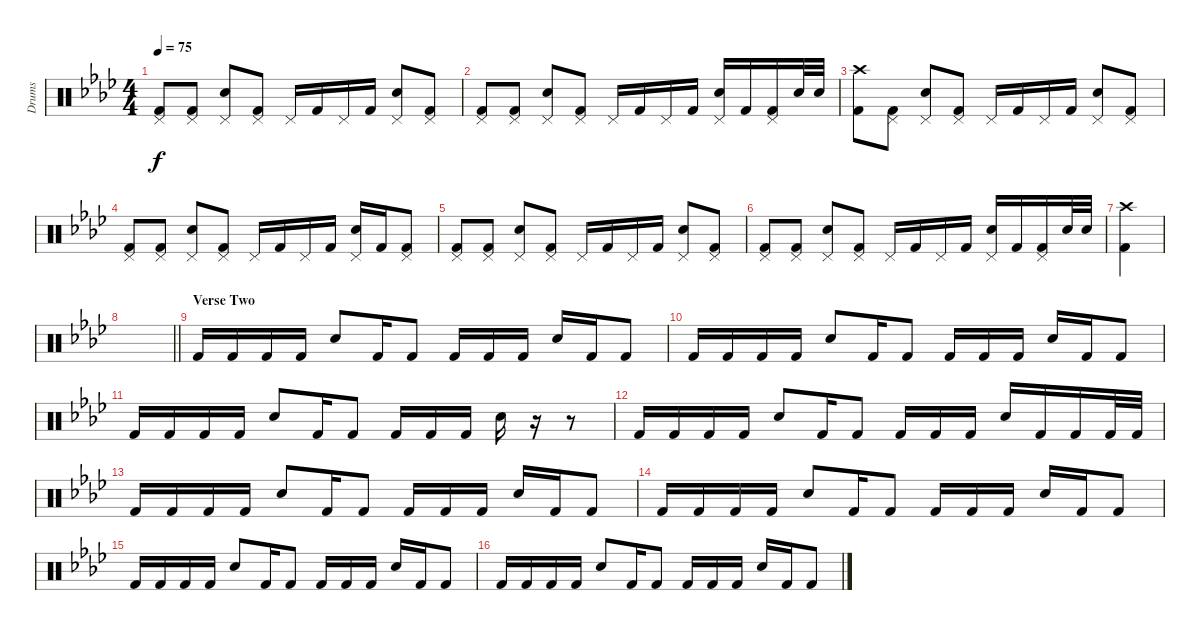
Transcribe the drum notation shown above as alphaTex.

\track ("Drums" "Drums") {instrument percussion}
\staff {score}
\articulation defaults
\ts (4 4)
\tempo 75
\clef neutral
\ks ab
("Pedal Hi-Hat (hit)" "Kick (hit) 2").8{dy f} ("Pedal Hi-Hat (hit)" "Kick (hit) 2").8 ("Pedal Hi-Hat (hit)" "Snare (hit) 2").8 ("Pedal Hi-Hat (hit)" "Kick (hit) 2").8 "Pedal Hi-Hat (hit)".16 "Kick (hit) 2".16 "Pedal Hi-Hat (hit)".16 "Kick (hit) 2".16 ("Pedal Hi-Hat (hit)" "Snare (hit) 2").8 ("Pedal Hi-Hat (hit)" "Kick (hit) 2").8 |
("Pedal Hi-Hat (hit)" "Kick (hit) 2").8 ("Pedal Hi-Hat (hit)" "Kick (hit) 2").8 ("Pedal Hi-Hat (hit)" "Snare (hit) 2").8 ("Pedal Hi-Hat (hit)" "Kick (hit) 2").8 "Pedal Hi-Hat (hit)".16 "Kick (hit) 2".16 "Pedal Hi-Hat (hit)".16 "Kick (hit) 2".16 ("Pedal Hi-Hat (hit)" "Snare (hit) 2").16 "Kick (hit) 2".16 ("Pedal Hi-Hat (hit)" "Kick (hit) 2").16 "Snare (hit) 2".32 "Snare (hit) 2".32 |
("Crash high (hit)" "Kick (hit) 2").8 ("Pedal Hi-Hat (hit)" "Kick (hit) 2").8 ("Pedal Hi-Hat (hit)" "Snare (hit) 2").8 ("Pedal Hi-Hat (hit)" "Kick (hit) 2").8 "Pedal Hi-Hat (hit)".16 "Kick (hit) 2".16 "Pedal Hi-Hat (hit)".16 "Kick (hit) 2".16 ("Pedal Hi-Hat (hit)" "Snare (hit) 2").8 ("Pedal Hi-Hat (hit)" "Kick (hit) 2").8 |
("Pedal Hi-Hat (hit)" "Kick (hit) 2").8 ("Pedal Hi-Hat (hit)" "Kick (hit) 2").8 ("Pedal Hi-Hat (hit)" "Snare (hit) 2").8 ("Pedal Hi-Hat (hit)" "Kick (hit) 2").8 "Pedal Hi-Hat (hit)".16 "Kick (hit) 2".16 "Pedal Hi-Hat (hit)".16 "Kick (hit) 2".16 ("Pedal Hi-Hat (hit)" "Snare (hit) 2").16 "Kick (hit) 2".16 ("Pedal Hi-Hat (hit)" "Kick (hit) 2").8 |
("Pedal Hi-Hat (hit)" "Kick (hit) 2").8 ("Pedal Hi-Hat (hit)" "Kick (hit) 2").8 ("Pedal Hi-Hat (hit)" "Snare (hit) 2").8 ("Pedal Hi-Hat (hit)" "Kick (hit) 2").8 "Pedal Hi-Hat (hit)".16 "Kick (hit) 2".16 "Pedal Hi-Hat (hit)".16 "Kick (hit) 2".16 ("Pedal Hi-Hat (hit)" "Snare (hit) 2").8 ("Pedal Hi-Hat (hit)" "Kick (hit) 2").8 |
("Pedal Hi-Hat (hit)" "Kick (hit) 2").8 ("Pedal Hi-Hat (hit)" "Kick (hit) 2").8 ("Pedal Hi-Hat (hit)" "Snare (hit) 2").8 ("Pedal Hi-Hat (hit)" "Kick (hit) 2").8 "Pedal Hi-Hat (hit)".16 "Kick (hit) 2".16 "Pedal Hi-Hat (hit)".16 "Kick (hit) 2".16 ("Pedal Hi-Hat (hit)" "Snare (hit) 2").16 "Kick (hit) 2".16 ("Pedal Hi-Hat (hit)" "Kick (hit) 2").16 "Snare (hit) 2".32 "Snare (hit) 2".32 |
("Crash high (hit)" "Kick (hit) 2").4 |
\barLineRight lightlight
|
\section ("" "Verse Two")
"Kick (hit) 2".16 "Kick (hit) 2".16 "Kick (hit) 2".16 "Kick (hit) 2".16 "Snare (hit) 2".8 "Kick (hit) 2".16 "Kick (hit) 2".8 "Kick (hit) 2".16 "Kick (hit) 2".16 "Kick (hit) 2".16 "Snare (hit) 2".16 "Kick (hit) 2".16 "Kick (hit) 2".8 |
"Kick (hit) 2".16 "Kick (hit) 2".16 "Kick (hit) 2".16 "Kick (hit) 2".16 "Snare (hit) 2".8 "Kick (hit) 2".16 "Kick (hit) 2".8 "Kick (hit) 2".16 "Kick (hit) 2".16 "Kick (hit) 2".16 "Snare (hit) 2".16 "Kick (hit) 2".16 "Kick (hit) 2".8 |
"Kick (hit) 2".16 "Kick (hit) 2".16 "Kick (hit) 2".16 "Kick (hit) 2".16 "Snare (hit) 2".8 "Kick (hit) 2".16 "Kick (hit) 2".8 "Kick (hit) 2".16 "Kick (hit) 2".16 "Kick (hit) 2".16 "Snare (hit) 2".16 r.16 r.8 |
"Kick (hit) 2".16 "Kick (hit) 2".16 "Kick (hit) 2".16 "Kick (hit) 2".16 "Snare (hit) 2".8 "Kick (hit) 2".16 "Kick (hit) 2".8 "Kick (hit) 2".16 "Kick (hit) 2".16 "Kick (hit) 2".16 "Snare (hit) 2".16 "Kick (hit) 2".16 "Kick (hit) 2".16 "Kick (hit) 2".32 "Kick (hit) 2".32 |
"Kick (hit) 2".16 "Kick (hit) 2".16 "Kick (hit) 2".16 "Kick (hit) 2".16 "Snare (hit) 2".8 "Kick (hit) 2".16 "Kick (hit) 2".8 "Kick (hit) 2".16 "Kick (hit) 2".16 "Kick (hit) 2".16 "Snare (hit) 2".16 "Kick (hit) 2".16 "Kick (hit) 2".8 |
"Kick (hit) 2".16 "Kick (hit) 2".16 "Kick (hit) 2".16 "Kick (hit) 2".16 "Snare (hit) 2".8 "Kick (hit) 2".16 "Kick (hit) 2".8 "Kick (hit) 2".16 "Kick (hit) 2".16 "Kick (hit) 2".16 "Snare (hit) 2".16 "Kick (hit) 2".16 "Kick (hit) 2".8 |
"Kick (hit) 2".16 "Kick (hit) 2".16 "Kick (hit) 2".16 "Kick (hit) 2".16 "Snare (hit) 2".8 "Kick (hit) 2".16 "Kick (hit) 2".8 "Kick (hit) 2".16 "Kick (hit) 2".16 "Kick (hit) 2".16 "Snare (hit) 2".16 "Kick (hit) 2".16 "Kick (hit) 2".8 |
"Kick (hit) 2".16 "Kick (hit) 2".16 "Kick (hit) 2".16 "Kick (hit) 2".16 "Snare (hit) 2".8 "Kick (hit) 2".16 "Kick (hit) 2".8 "Kick (hit) 2".16 "Kick (hit) 2".16 "Kick (hit) 2".16 "Snare (hit) 2".16 "Kick (hit) 2".16 "Kick (hit) 2".8
